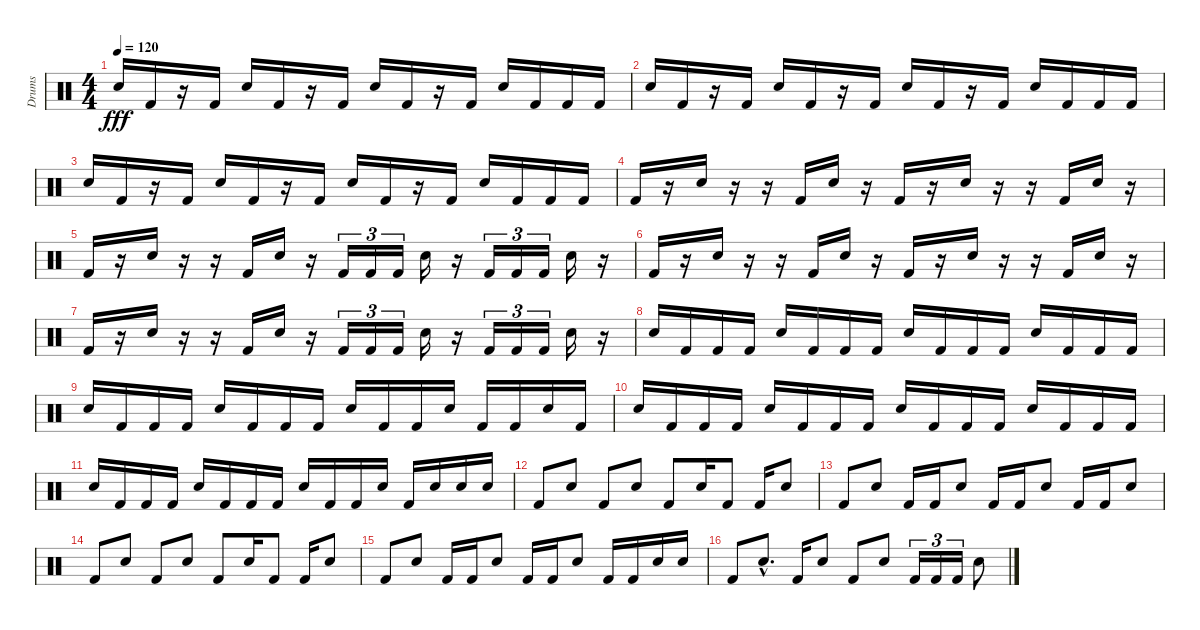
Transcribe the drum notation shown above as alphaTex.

\track ("Drums" "Drums") {instrument percussion}
\staff {score}
\articulation defaults
\ts (4 4)
\tempo 120
\clef neutral
\ks c "Snare (hit) 2".16{dy fff} "Kick (hit) 2".16
r.16 "Kick (hit) 2".16 "Snare (hit) 2".16 "Kick (hit) 2".16 r.16 "Kick (hit) 2".16 "Snare (hit) 2".16 "Kick (hit) 2".16 r.16 "Kick (hit) 2".16 "Snare (hit) 2".16 "Kick (hit) 2".16 "Kick (hit) 2".16 "Kick (hit) 2".16 |
"Snare (hit) 2".16 "Kick (hit) 2".16 r.16 "Kick (hit) 2".16 "Snare (hit) 2".16 "Kick (hit) 2".16 r.16 "Kick (hit) 2".16 "Snare (hit) 2".16 "Kick (hit) 2".16 r.16 "Kick (hit) 2".16 "Snare (hit) 2".16 "Kick (hit) 2".16 "Kick (hit) 2".16 "Kick (hit) 2".16 |
"Snare (hit) 2".16 "Kick (hit) 2".16 r.16 "Kick (hit) 2".16 "Snare (hit) 2".16 "Kick (hit) 2".16 r.16 "Kick (hit) 2".16 "Snare (hit) 2".16 "Kick (hit) 2".16 r.16 "Kick (hit) 2".16 "Snare (hit) 2".16 "Kick (hit) 2".16 "Kick (hit) 2".16 "Kick (hit) 2".16 |
"Kick (hit) 2".16 r.16 "Snare (hit) 2".16 r.16 r.16 "Kick (hit) 2".16 "Snare (hit) 2".16 r.16 "Kick (hit) 2".16 r.16 "Snare (hit) 2".16 r.16 r.16 "Kick (hit) 2".16 "Snare (hit) 2".16 r.16 |
"Kick (hit) 2".16 r.16 "Snare (hit) 2".16 r.16 r.16 "Kick (hit) 2".16 "Snare (hit) 2".16 r.16 "Kick (hit) 2".16{tu (3 2)} "Kick (hit) 2".16{tu (3 2)} "Kick (hit) 2".16{tu (3 2)} "Snare (hit) 2".16 r.16 "Kick (hit) 2".16{tu (3 2)} "Kick (hit) 2".16{tu (3 2)} "Kick (hit) 2".16{tu (3 2)} "Snare (hit) 2".16 r.16 |
"Kick (hit) 2".16 r.16 "Snare (hit) 2".16 r.16 r.16 "Kick (hit) 2".16 "Snare (hit) 2".16 r.16 "Kick (hit) 2".16 r.16 "Snare (hit) 2".16 r.16 r.16 "Kick (hit) 2".16 "Snare (hit) 2".16 r.16 |
"Kick (hit) 2".16 r.16 "Snare (hit) 2".16 r.16 r.16 "Kick (hit) 2".16 "Snare (hit) 2".16 r.16 "Kick (hit) 2".16{tu (3 2)} "Kick (hit) 2".16{tu (3 2)} "Kick (hit) 2".16{tu (3 2)} "Snare (hit) 2".16 r.16 "Kick (hit) 2".16{tu (3 2)} "Kick (hit) 2".16{tu (3 2)} "Kick (hit) 2".16{tu (3 2)} "Snare (hit) 2".16 r.16 |
"Snare (hit) 2".16 "Kick (hit) 2".16 "Kick (hit) 2".16 "Kick (hit) 2".16 "Snare (hit) 2".16 "Kick (hit) 2".16 "Kick (hit) 2".16 "Kick (hit) 2".16 "Snare (hit) 2".16 "Kick (hit) 2".16 "Kick (hit) 2".16 "Kick (hit) 2".16 "Snare (hit) 2".16 "Kick (hit) 2".16 "Kick (hit) 2".16 "Kick (hit) 2".16 |
"Snare (hit) 2".16 "Kick (hit) 2".16 "Kick (hit) 2".16 "Kick (hit) 2".16 "Snare (hit) 2".16 "Kick (hit) 2".16 "Kick (hit) 2".16 "Kick (hit) 2".16 "Snare (hit) 2".16 "Kick (hit) 2".16 "Kick (hit) 2".16 "Snare (hit) 2".16 "Kick (hit) 2".16 "Kick (hit) 2".16 "Snare (hit) 2".16 "Kick (hit) 2".16 |
"Snare (hit) 2".16 "Kick (hit) 2".16 "Kick (hit) 2".16 "Kick (hit) 2".16 "Snare (hit) 2".16 "Kick (hit) 2".16 "Kick (hit) 2".16 "Kick (hit) 2".16 "Snare (hit) 2".16 "Kick (hit) 2".16 "Kick (hit) 2".16 "Kick (hit) 2".16 "Snare (hit) 2".16 "Kick (hit) 2".16 "Kick (hit) 2".16 "Kick (hit) 2".16 |
"Snare (hit) 2".16 "Kick (hit) 2".16 "Kick (hit) 2".16 "Kick (hit) 2".16 "Snare (hit) 2".16 "Kick (hit) 2".16 "Kick (hit) 2".16 "Kick (hit) 2".16 "Snare (hit) 2".16 "Kick (hit) 2".16 "Kick (hit) 2".16 "Snare (hit) 2".16 "Kick (hit) 2".16 "Snare (hit) 2".16 "Snare (hit) 2".16 "Snare (hit) 2".16 |
"Kick (hit) 2".8 "Snare (hit) 2".8 "Kick (hit) 2".8 "Snare (hit) 2".8 "Kick (hit) 2".8 "Snare (hit) 2".16 "Kick (hit) 2".8 "Kick (hit) 2".16 "Snare (hit) 2".8 |
"Kick (hit) 2".8 "Snare (hit) 2".8 "Kick (hit) 2".16 "Kick (hit) 2".16 "Snare (hit) 2".8 "Kick (hit) 2".16 "Kick (hit) 2".16 "Snare (hit) 2".8 "Kick (hit) 2".16 "Kick (hit) 2".16 "Snare (hit) 2".8 |
"Kick (hit) 2".8 "Snare (hit) 2".8 "Kick (hit) 2".8 "Snare (hit) 2".8 "Kick (hit) 2".8 "Snare (hit) 2".16 "Kick (hit) 2".8 "Kick (hit) 2".16 "Snare (hit) 2".8 |
"Kick (hit) 2".8 "Snare (hit) 2".8 "Kick (hit) 2".16 "Kick (hit) 2".16 "Snare (hit) 2".8 "Kick (hit) 2".16 "Kick (hit) 2".16 "Snare (hit) 2".8 "Kick (hit) 2".16 "Kick (hit) 2".16 "Snare (hit) 2".16 "Snare (hit) 2".16 |
"Kick (hit) 2".8 "Snare (hit) 2"{hac}.8{d} "Kick (hit) 2".16 "Snare (hit) 2".8 "Kick (hit) 2".8 "Snare (hit) 2".8 "Kick (hit) 2".16{tu (3 2)} "Kick (hit) 2".16{tu (3 2)} "Kick (hit) 2".16{tu (3 2)} "Snare (hit) 2".8
